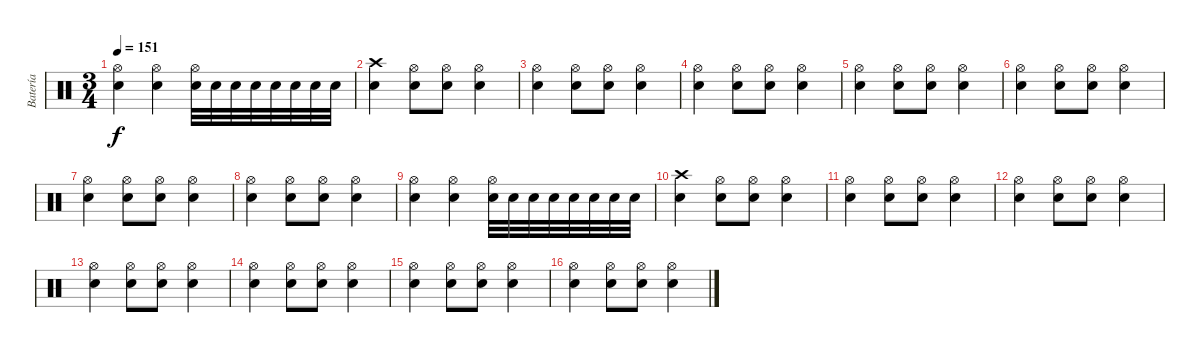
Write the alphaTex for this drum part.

\track ("Batería" "Batería") {instrument percussion}
\staff {score}
\articulation defaults
\ts (3 4)
\tempo 151
\clef neutral
\ks c
("Hi-Hat (open)" "Snare (hit) 2").4{dy f} ("Hi-Hat (open)" "Snare (hit) 2").4 ("Hi-Hat (open)" "Snare (hit) 2").32 "Snare (hit) 2".32 "Snare (hit) 2".32 "Snare (hit) 2".32 "Snare (hit) 2".32 "Snare (hit) 2".32 "Snare (hit) 2".32 "Snare (hit) 2".32 |
("Crash high (hit)" "Snare (hit) 2").4 ("Hi-Hat (open)" "Snare (hit) 2").8 ("Hi-Hat (open)" "Snare (hit) 2").8 ("Hi-Hat (open)" "Snare (hit) 2").4 |
("Hi-Hat (open)" "Snare (hit) 2").4 ("Hi-Hat (open)" "Snare (hit) 2").8 ("Hi-Hat (open)" "Snare (hit) 2").8 ("Hi-Hat (open)" "Snare (hit) 2").4 |
("Hi-Hat (open)" "Snare (hit) 2").4 ("Hi-Hat (open)" "Snare (hit) 2").8 ("Hi-Hat (open)" "Snare (hit) 2").8 ("Hi-Hat (open)" "Snare (hit) 2").4 |
("Hi-Hat (open)" "Snare (hit) 2").4 ("Hi-Hat (open)" "Snare (hit) 2").8 ("Hi-Hat (open)" "Snare (hit) 2").8 ("Hi-Hat (open)" "Snare (hit) 2").4 |
("Hi-Hat (open)" "Snare (hit) 2").4 ("Hi-Hat (open)" "Snare (hit) 2").8 ("Hi-Hat (open)" "Snare (hit) 2").8 ("Hi-Hat (open)" "Snare (hit) 2").4 |
("Hi-Hat (open)" "Snare (hit) 2").4 ("Hi-Hat (open)" "Snare (hit) 2").8 ("Hi-Hat (open)" "Snare (hit) 2").8 ("Hi-Hat (open)" "Snare (hit) 2").4 |
("Hi-Hat (open)" "Snare (hit) 2").4 ("Hi-Hat (open)" "Snare (hit) 2").8 ("Hi-Hat (open)" "Snare (hit) 2").8 ("Hi-Hat (open)" "Snare (hit) 2").4 |
("Hi-Hat (open)" "Snare (hit) 2").4 ("Hi-Hat (open)" "Snare (hit) 2").4 ("Hi-Hat (open)" "Snare (hit) 2").32 "Snare (hit) 2".32 "Snare (hit) 2".32 "Snare (hit) 2".32 "Snare (hit) 2".32 "Snare (hit) 2".32 "Snare (hit) 2".32 "Snare (hit) 2".32 |
("Crash high (hit)" "Snare (hit) 2").4 ("Hi-Hat (open)" "Snare (hit) 2").8 ("Hi-Hat (open)" "Snare (hit) 2").8 ("Hi-Hat (open)" "Snare (hit) 2").4 |
("Hi-Hat (open)" "Snare (hit) 2").4 ("Hi-Hat (open)" "Snare (hit) 2").8 ("Hi-Hat (open)" "Snare (hit) 2").8 ("Hi-Hat (open)" "Snare (hit) 2").4 |
("Hi-Hat (open)" "Snare (hit) 2").4 ("Hi-Hat (open)" "Snare (hit) 2").8 ("Hi-Hat (open)" "Snare (hit) 2").8 ("Hi-Hat (open)" "Snare (hit) 2").4 |
("Hi-Hat (open)" "Snare (hit) 2").4 ("Hi-Hat (open)" "Snare (hit) 2").8 ("Hi-Hat (open)" "Snare (hit) 2").8 ("Hi-Hat (open)" "Snare (hit) 2").4 |
("Hi-Hat (open)" "Snare (hit) 2").4 ("Hi-Hat (open)" "Snare (hit) 2").8 ("Hi-Hat (open)" "Snare (hit) 2").8 ("Hi-Hat (open)" "Snare (hit) 2").4 |
("Hi-Hat (open)" "Snare (hit) 2").4 ("Hi-Hat (open)" "Snare (hit) 2").8 ("Hi-Hat (open)" "Snare (hit) 2").8 ("Hi-Hat (open)" "Snare (hit) 2").4 |
("Hi-Hat (open)" "Snare (hit) 2").4 ("Hi-Hat (open)" "Snare (hit) 2").8 ("Hi-Hat (open)" "Snare (hit) 2").8 ("Hi-Hat (open)" "Snare (hit) 2").4
